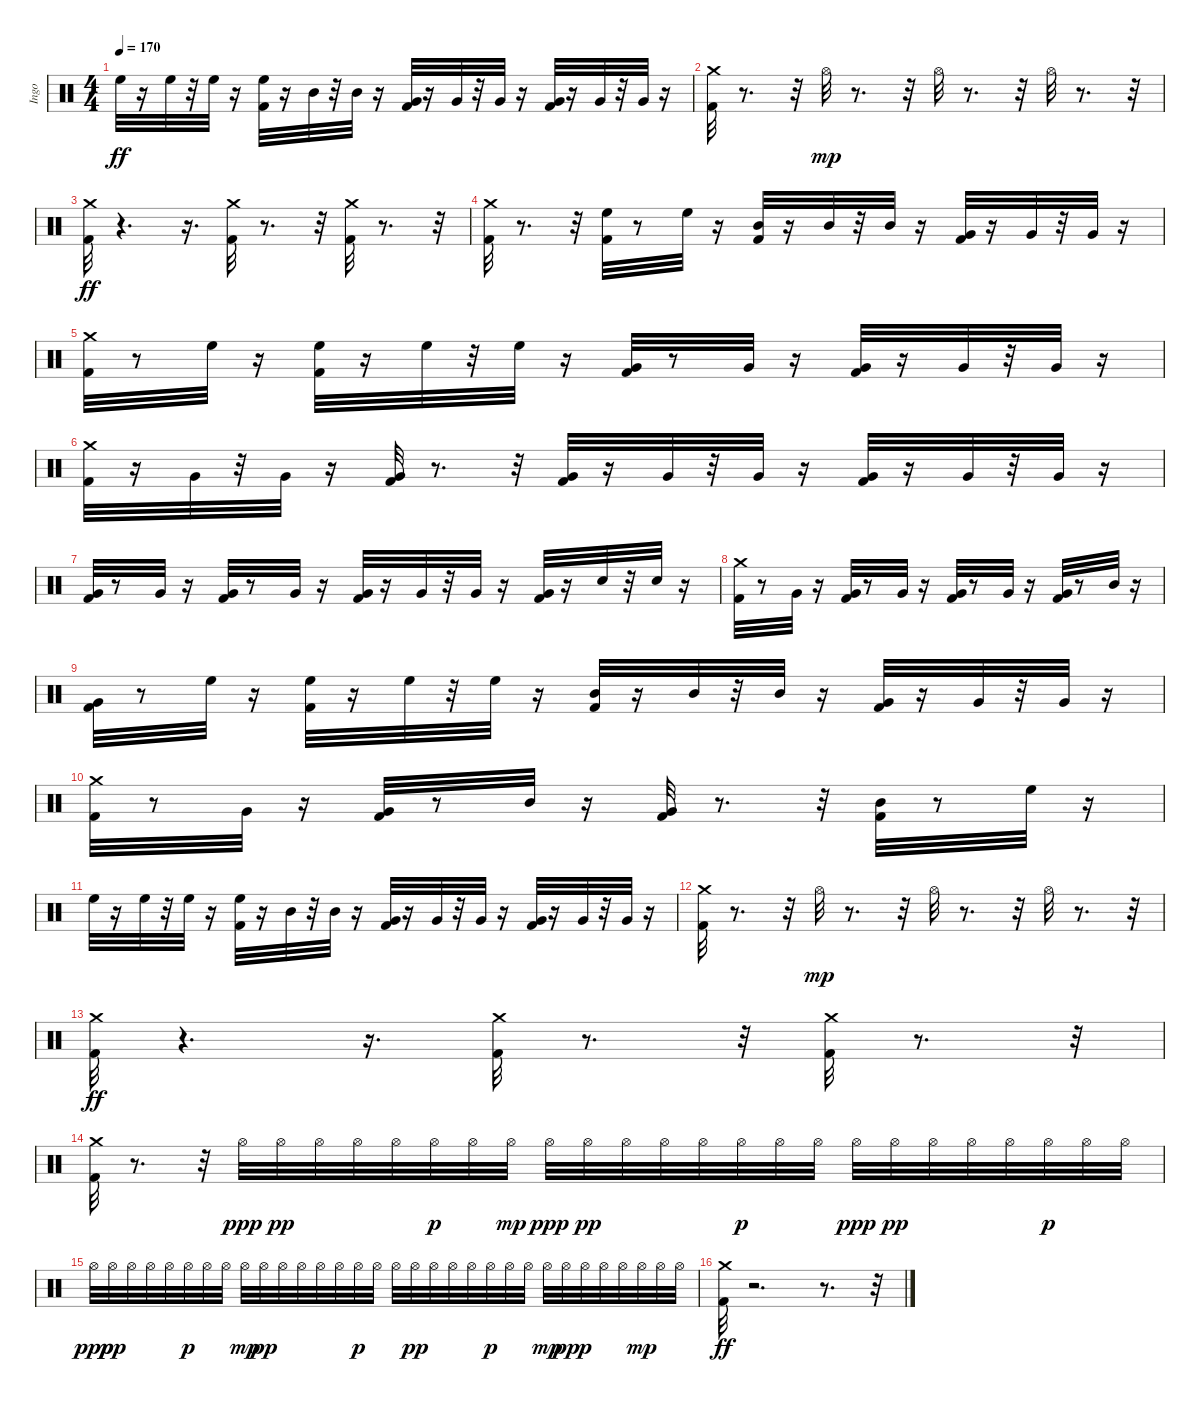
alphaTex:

\track ("Ingo" "Ingo") {instrument percussion}
\staff {score}
\articulation defaults
\ts (4 4)
\tempo 170
\clef neutral
\ks c "High Floor Tom (hit)".32{dy ff}
r.16 "High Floor Tom (hit)".32 r.32 "High Floor Tom (hit)".32 r.16 ("High Floor Tom (hit)" "Kick (hit) 2").32 r.16 "Mid Tom (hit)".32 r.32 "Mid Tom (hit)".32 r.16 ("Very Low Tom (hit)" "Kick (hit) 2").32 r.16 "Very Low Tom (hit)".32 r.32 "Very Low Tom (hit)".32 r.16 ("Very Low Tom (hit)" "Kick (hit) 2").32 r.16 "Very Low Tom (hit)".32 r.32 "Very Low Tom (hit)".32 r.16 |
("Crash medium (hit)" "Kick (hit) 2").32 r.8{d} r.32 "Hi-Hat (open)".32{dy mp} r.8{d} r.32 "Hi-Hat (open)".32 r.8{d} r.32 "Hi-Hat (open)".32 r.8{d} r.32 |
("Crash medium (hit)" "Kick (hit) 2").32{dy ff} r.4{d} r.16{d} ("Crash medium (hit)" "Kick (hit) 2").32 r.8{d} r.32 ("Crash medium (hit)" "Kick (hit) 2").32 r.8{d} r.32 |
("Crash medium (hit)" "Kick (hit) 2").32 r.8{d} r.32 ("High Floor Tom (hit)" "Kick (hit) 2").32 r.8 "High Floor Tom (hit)".32 r.16 ("Mid Tom (hit)" "Kick (hit) 2").32 r.16 "Mid Tom (hit)".32 r.32 "Mid Tom (hit)".32 r.16 ("Very Low Tom (hit)" "Kick (hit) 2").32 r.16 "Very Low Tom (hit)".32 r.32 "Very Low Tom (hit)".32 r.16 |
("Crash medium (hit)" "Kick (hit) 2").32 r.8 "High Floor Tom (hit)".32 r.16 ("High Floor Tom (hit)" "Kick (hit) 2").32 r.16 "High Floor Tom (hit)".32 r.32 "High Floor Tom (hit)".32 r.16 ("Very Low Tom (hit)" "Kick (hit) 2").32 r.8 "Very Low Tom (hit)".32 r.16 ("Very Low Tom (hit)" "Kick (hit) 2").32 r.16 "Very Low Tom (hit)".32 r.32 "Very Low Tom (hit)".32 r.16 |
("Crash medium (hit)" "Kick (hit) 2").32 r.16 "Very Low Tom (hit)".32 r.32 "Very Low Tom (hit)".32 r.16 ("Very Low Tom (hit)" "Kick (hit) 2").32 r.8{d} r.32 ("Very Low Tom (hit)" "Kick (hit) 2").32 r.16 "Very Low Tom (hit)".32 r.32 "Very Low Tom (hit)".32 r.16 ("Very Low Tom (hit)" "Kick (hit) 2").32 r.16 "Very Low Tom (hit)".32 r.32 "Very Low Tom (hit)".32 r.16 |
("Very Low Tom (hit)" "Kick (hit) 2").32 r.8 "Very Low Tom (hit)".32 r.16 ("Very Low Tom (hit)" "Kick (hit) 2").32 r.8 "Very Low Tom (hit)".32 r.16 ("Very Low Tom (hit)" "Kick (hit) 2").32 r.16 "Very Low Tom (hit)".32 r.32 "Very Low Tom (hit)".32 r.16 ("Very Low Tom (hit)" "Kick (hit) 2").32 r.16 "Snare (hit)".32 r.32 "Snare (hit)".32 r.16 |
("Crash medium (hit)" "Kick (hit) 2").32 r.8 "Very Low Tom (hit)".32 r.16 ("Very Low Tom (hit)" "Kick (hit) 2").32 r.8 "Very Low Tom (hit)".32 r.16 ("Very Low Tom (hit)" "Kick (hit) 2").32 r.8 "Very Low Tom (hit)".32 r.16 ("Very Low Tom (hit)" "Kick (hit) 2").32 r.8 "Mid Tom (hit)".32 r.16 |
("Very Low Tom (hit)" "Kick (hit) 2").32 r.8 "High Floor Tom (hit)".32 r.16 ("High Floor Tom (hit)" "Kick (hit) 2").32 r.16 "High Floor Tom (hit)".32 r.32 "High Floor Tom (hit)".32 r.16 ("Kick (hit) 2" "Mid Tom (hit)").32 r.16 "Mid Tom (hit)".32 r.32 "Mid Tom (hit)".32 r.16 ("Kick (hit) 2" "Very Low Tom (hit)").32 r.16 "Very Low Tom (hit)".32 r.32 "Very Low Tom (hit)".32 r.16 |
("Crash medium (hit)" "Kick (hit) 2").32 r.8 "Very Low Tom (hit)".32 r.16 ("Very Low Tom (hit)" "Kick (hit) 2").32 r.8 "Mid Tom (hit)".32 r.16 ("Very Low Tom (hit)" "Kick (hit) 2").32 r.8{d} r.32 ("Mid Tom (hit)" "Kick (hit) 2").32 r.8 "High Floor Tom (hit)".32 r.16 |
"High Floor Tom (hit)".32 r.16 "High Floor Tom (hit)".32 r.32 "High Floor Tom (hit)".32 r.16 ("High Floor Tom (hit)" "Kick (hit) 2").32 r.16 "Mid Tom (hit)".32 r.32 "Mid Tom (hit)".32 r.16 ("Very Low Tom (hit)" "Kick (hit) 2").32 r.16 "Very Low Tom (hit)".32 r.32 "Very Low Tom (hit)".32 r.16 ("Very Low Tom (hit)" "Kick (hit) 2").32 r.16 "Very Low Tom (hit)".32 r.32 "Very Low Tom (hit)".32 r.16 |
("Crash medium (hit)" "Kick (hit) 2").32 r.8{d} r.32 "Hi-Hat (open)".32{dy mp} r.8{d} r.32 "Hi-Hat (open)".32 r.8{d} r.32 "Hi-Hat (open)".32 r.8{d} r.32 |
("Crash medium (hit)" "Kick (hit) 2").32{dy ff} r.4{d} r.16{d} ("Crash medium (hit)" "Kick (hit) 2").32 r.8{d} r.32 ("Crash medium (hit)" "Kick (hit) 2").32 r.8{d} r.32 |
("Crash medium (hit)" "Kick (hit) 2").32 r.8{d} r.32 "Hi-Hat (open)".32{dy ppp} "Hi-Hat (open)".32{dy pp} "Hi-Hat (open)".32 "Hi-Hat (open)".32 "Hi-Hat (open)".32 "Hi-Hat (open)".32{dy p} "Hi-Hat (open)".32 "Hi-Hat (open)".32{dy mp} "Hi-Hat (open)".32{dy ppp} "Hi-Hat (open)".32{dy pp} "Hi-Hat (open)".32 "Hi-Hat (open)".32 "Hi-Hat (open)".32 "Hi-Hat (open)".32{dy p} "Hi-Hat (open)".32 "Hi-Hat (open)".32 "Hi-Hat (open)".32{dy ppp} "Hi-Hat (open)".32{dy pp} "Hi-Hat (open)".32 "Hi-Hat (open)".32 "Hi-Hat (open)".32 "Hi-Hat (open)".32{dy p} "Hi-Hat (open)".32 "Hi-Hat (open)".32 |
"Hi-Hat (open)".32{dy ppp} "Hi-Hat (open)".32{dy pp} "Hi-Hat (open)".32 "Hi-Hat (open)".32 "Hi-Hat (open)".32 "Hi-Hat (open)".32{dy p} "Hi-Hat (open)".32 "Hi-Hat (open)".32 "Hi-Hat (open)".32{dy mp} "Hi-Hat (open)".32{dy pp} "Hi-Hat (open)".32 "Hi-Hat (open)".32 "Hi-Hat (open)".32 "Hi-Hat (open)".32 "Hi-Hat (open)".32{dy p} "Hi-Hat (open)".32 "Hi-Hat (open)".32 "Hi-Hat (open)".32{dy pp} "Hi-Hat (open)".32 "Hi-Hat (open)".32 "Hi-Hat (open)".32 "Hi-Hat (open)".32{dy p} "Hi-Hat (open)".32 "Hi-Hat (open)".32 "Hi-Hat (open)".32{dy mp} "Hi-Hat (open)".32{dy pp} "Hi-Hat (open)".32{dy p} "Hi-Hat (open)".32 "Hi-Hat (open)".32 "Hi-Hat (open)".32{dy mp} "Hi-Hat (open)".32 "Hi-Hat (open)".32 |
("Kick (hit) 2" "Crash medium (hit)").32{dy ff} r.2{d} r.8{d} r.32
